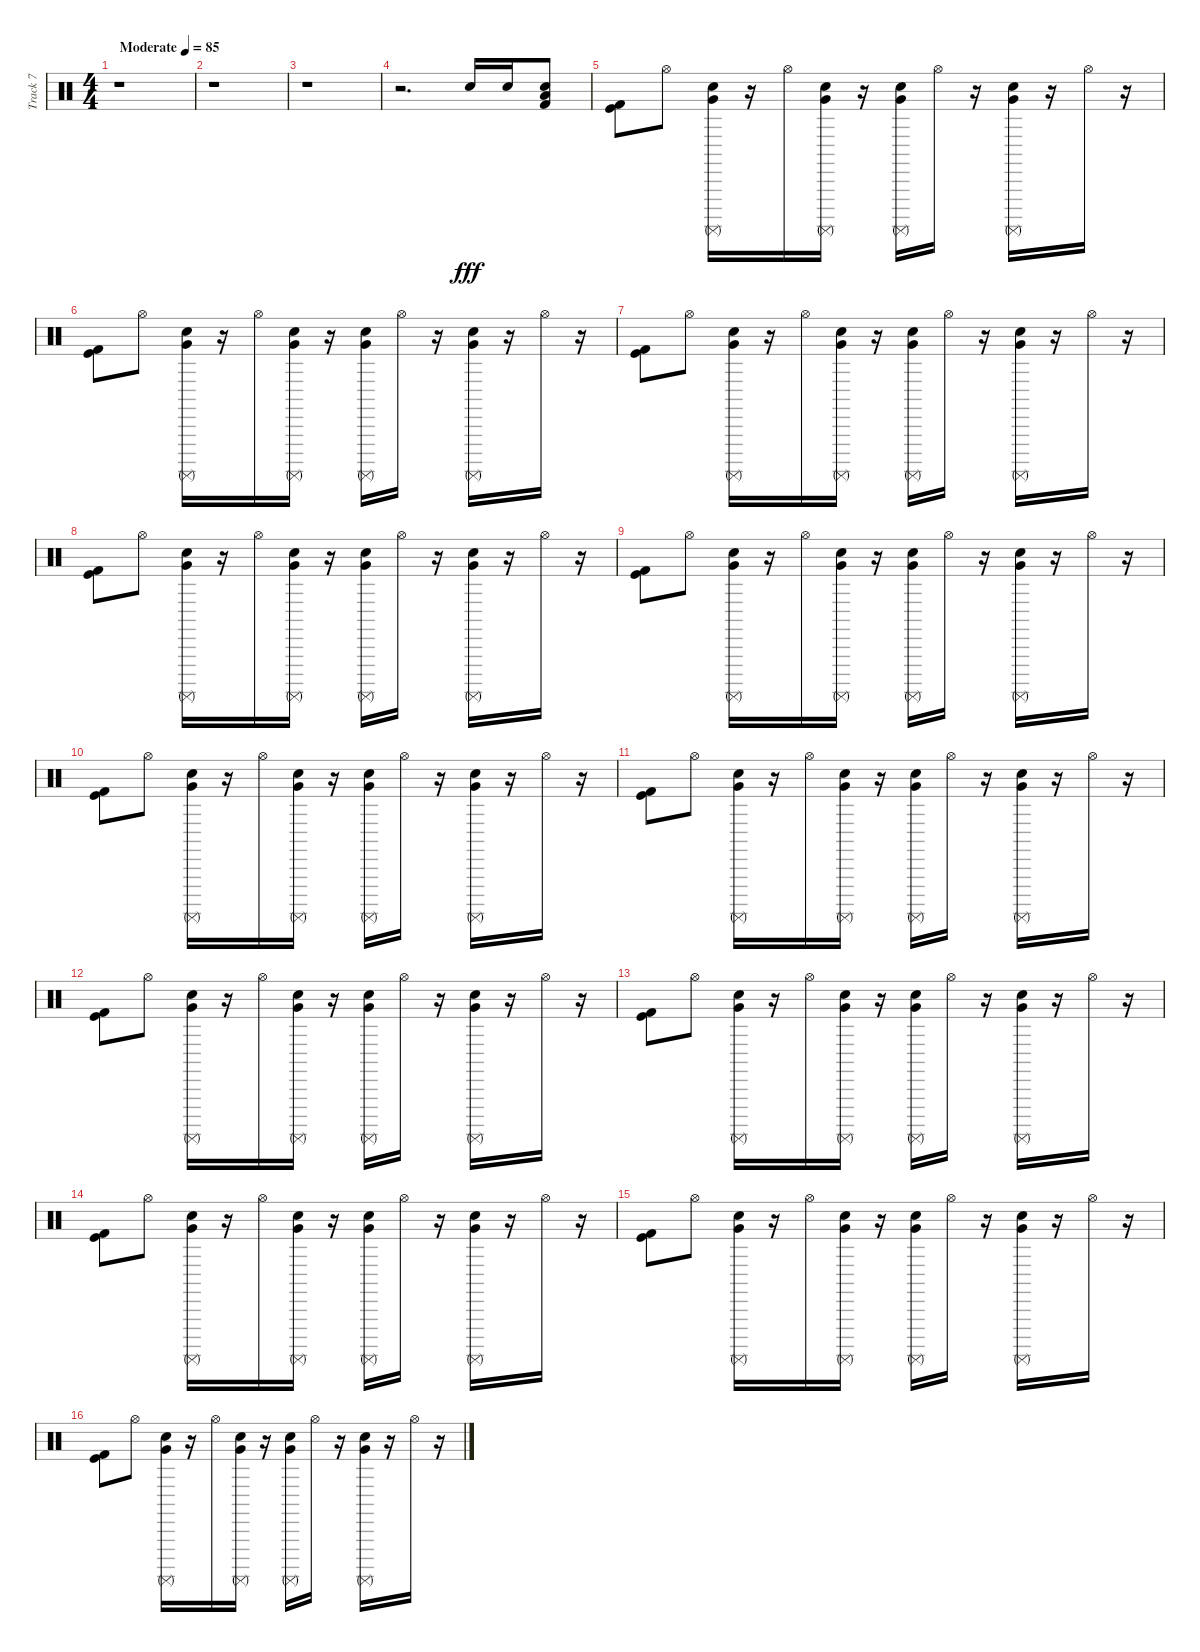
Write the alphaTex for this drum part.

\track ("Track 7" "Track 7") {instrument percussion}
\staff {score}
\articulation defaults
\ts (4 4)
\tempo (85 "Moderate")
\clef neutral
\ks c
r.1{dy fff} |
r.1 |
r.1 |
r.2{d} "Snare (hit) 2".16 "Snare (hit) 2".16 ("Low Floor Tom (hit)" "Kick (hit) 2" "Snare (hit) 2").8 |
("Kick (hit)" "Kick (hit) 2").8 "Hi-Hat (open)".8 ("Surdo (mute)" "Snare (hit) 2" "Very Low Tom (hit)").16 r.16 "Hi-Hat (open)".16 ("Surdo (mute)" "Snare (hit) 2" "Very Low Tom (hit)").16 r.16 ("Surdo (mute)" "Snare (hit) 2" "Very Low Tom (hit)").16 "Hi-Hat (open)".16 r.16 ("Surdo (mute)" "Snare (hit) 2" "Very Low Tom (hit)").16 r.16 "Hi-Hat (open)".16 r.16 |
("Kick (hit)" "Kick (hit) 2").8 "Hi-Hat (open)".8 ("Surdo (mute)" "Snare (hit) 2" "Very Low Tom (hit)").16 r.16 "Hi-Hat (open)".16 ("Surdo (mute)" "Snare (hit) 2" "Very Low Tom (hit)").16 r.16 ("Surdo (mute)" "Snare (hit) 2" "Very Low Tom (hit)").16 "Hi-Hat (open)".16 r.16 ("Surdo (mute)" "Snare (hit) 2" "Very Low Tom (hit)").16 r.16 "Hi-Hat (open)".16 r.16 |
("Kick (hit)" "Kick (hit) 2").8 "Hi-Hat (open)".8 ("Surdo (mute)" "Snare (hit) 2" "Very Low Tom (hit)").16 r.16 "Hi-Hat (open)".16 ("Surdo (mute)" "Snare (hit) 2" "Very Low Tom (hit)").16 r.16 ("Surdo (mute)" "Snare (hit) 2" "Very Low Tom (hit)").16 "Hi-Hat (open)".16 r.16 ("Surdo (mute)" "Snare (hit) 2" "Very Low Tom (hit)").16 r.16 "Hi-Hat (open)".16 r.16 |
("Kick (hit)" "Kick (hit) 2").8 "Hi-Hat (open)".8 ("Surdo (mute)" "Snare (hit) 2" "Very Low Tom (hit)").16 r.16 "Hi-Hat (open)".16 ("Surdo (mute)" "Snare (hit) 2" "Very Low Tom (hit)").16 r.16 ("Surdo (mute)" "Snare (hit) 2" "Very Low Tom (hit)").16 "Hi-Hat (open)".16 r.16 ("Surdo (mute)" "Snare (hit) 2" "Very Low Tom (hit)").16 r.16 "Hi-Hat (open)".16 r.16 |
("Kick (hit)" "Kick (hit) 2").8 "Hi-Hat (open)".8 ("Surdo (mute)" "Snare (hit) 2" "Very Low Tom (hit)").16 r.16 "Hi-Hat (open)".16 ("Surdo (mute)" "Snare (hit) 2" "Very Low Tom (hit)").16 r.16 ("Surdo (mute)" "Snare (hit) 2" "Very Low Tom (hit)").16 "Hi-Hat (open)".16 r.16 ("Surdo (mute)" "Snare (hit) 2" "Very Low Tom (hit)").16 r.16 "Hi-Hat (open)".16 r.16 |
("Kick (hit)" "Kick (hit) 2").8 "Hi-Hat (open)".8 ("Surdo (mute)" "Snare (hit) 2" "Very Low Tom (hit)").16 r.16 "Hi-Hat (open)".16 ("Surdo (mute)" "Snare (hit) 2" "Very Low Tom (hit)").16 r.16 ("Surdo (mute)" "Snare (hit) 2" "Very Low Tom (hit)").16 "Hi-Hat (open)".16 r.16 ("Surdo (mute)" "Snare (hit) 2" "Very Low Tom (hit)").16 r.16 "Hi-Hat (open)".16 r.16 |
("Kick (hit)" "Kick (hit) 2").8 "Hi-Hat (open)".8 ("Surdo (mute)" "Snare (hit) 2" "Very Low Tom (hit)").16 r.16 "Hi-Hat (open)".16 ("Surdo (mute)" "Snare (hit) 2" "Very Low Tom (hit)").16 r.16 ("Surdo (mute)" "Snare (hit) 2" "Very Low Tom (hit)").16 "Hi-Hat (open)".16 r.16 ("Surdo (mute)" "Snare (hit) 2" "Very Low Tom (hit)").16 r.16 "Hi-Hat (open)".16 r.16 |
("Kick (hit)" "Kick (hit) 2").8 "Hi-Hat (open)".8 ("Surdo (mute)" "Snare (hit) 2" "Very Low Tom (hit)").16 r.16 "Hi-Hat (open)".16 ("Surdo (mute)" "Snare (hit) 2" "Very Low Tom (hit)").16 r.16 ("Surdo (mute)" "Snare (hit) 2" "Very Low Tom (hit)").16 "Hi-Hat (open)".16 r.16 ("Surdo (mute)" "Snare (hit) 2" "Very Low Tom (hit)").16 r.16 "Hi-Hat (open)".16 r.16 |
("Kick (hit)" "Kick (hit) 2").8 "Hi-Hat (open)".8 ("Surdo (mute)" "Snare (hit) 2" "Very Low Tom (hit)").16 r.16 "Hi-Hat (open)".16 ("Surdo (mute)" "Snare (hit) 2" "Very Low Tom (hit)").16 r.16 ("Surdo (mute)" "Snare (hit) 2" "Very Low Tom (hit)").16 "Hi-Hat (open)".16 r.16 ("Surdo (mute)" "Snare (hit) 2" "Very Low Tom (hit)").16 r.16 "Hi-Hat (open)".16 r.16 |
("Kick (hit)" "Kick (hit) 2").8 "Hi-Hat (open)".8 ("Surdo (mute)" "Snare (hit) 2" "Very Low Tom (hit)").16 r.16 "Hi-Hat (open)".16 ("Surdo (mute)" "Snare (hit) 2" "Very Low Tom (hit)").16 r.16 ("Surdo (mute)" "Snare (hit) 2" "Very Low Tom (hit)").16 "Hi-Hat (open)".16 r.16 ("Surdo (mute)" "Snare (hit) 2" "Very Low Tom (hit)").16 r.16 "Hi-Hat (open)".16 r.16 |
("Kick (hit)" "Kick (hit) 2").8 "Hi-Hat (open)".8 ("Surdo (mute)" "Snare (hit) 2" "Very Low Tom (hit)").16 r.16 "Hi-Hat (open)".16 ("Surdo (mute)" "Snare (hit) 2" "Very Low Tom (hit)").16 r.16 ("Surdo (mute)" "Snare (hit) 2" "Very Low Tom (hit)").16 "Hi-Hat (open)".16 r.16 ("Surdo (mute)" "Snare (hit) 2" "Very Low Tom (hit)").16 r.16 "Hi-Hat (open)".16 r.16 |
("Kick (hit)" "Kick (hit) 2").8 "Hi-Hat (open)".8 ("Surdo (mute)" "Snare (hit) 2" "Very Low Tom (hit)").16 r.16 "Hi-Hat (open)".16 ("Surdo (mute)" "Snare (hit) 2" "Very Low Tom (hit)").16 r.16 ("Surdo (mute)" "Snare (hit) 2" "Very Low Tom (hit)").16 "Hi-Hat (open)".16 r.16 ("Surdo (mute)" "Snare (hit) 2" "Very Low Tom (hit)").16 r.16 "Hi-Hat (open)".16 r.16
